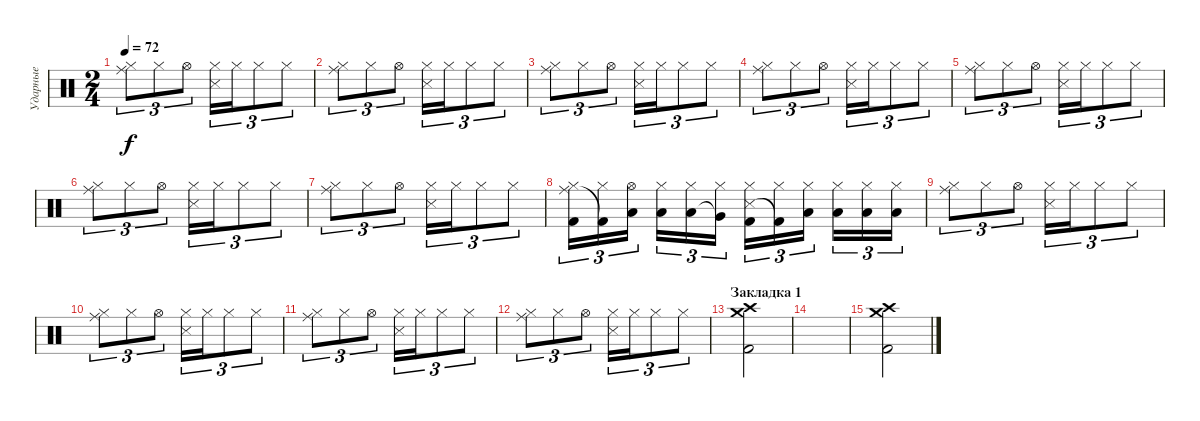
\track ("Ударные" "Ударные") {instrument percussion}
\staff {score}
\articulation defaults
\ts (2 4)
\tempo 72
\clef neutral
\ks c
("Hi-Hat (closed)" "Ride (middle)").8{tu (3 2) dy f} "Hi-Hat (closed)".8{tu (3 2)} "Hi-Hat (open)".8{tu (3 2)} ("Hi-Hat (closed)" "Snare (side stick) 3").16{tu (3 2)} "Hi-Hat (closed)".16{tu (3 2)} "Hi-Hat (closed)".8{tu (3 2)} "Hi-Hat (closed)".8{tu (3 2)} |
("Hi-Hat (closed)" "Ride (middle)").8{tu (3 2)} "Hi-Hat (closed)".8{tu (3 2)} "Hi-Hat (open)".8{tu (3 2)} ("Hi-Hat (closed)" "Snare (side stick) 3").16{tu (3 2)} "Hi-Hat (closed)".16{tu (3 2)} "Hi-Hat (closed)".8{tu (3 2)} "Hi-Hat (closed)".8{tu (3 2)} |
("Hi-Hat (closed)" "Ride (middle)").8{tu (3 2)} "Hi-Hat (closed)".8{tu (3 2)} "Hi-Hat (open)".8{tu (3 2)} ("Hi-Hat (closed)" "Snare (side stick) 3").16{tu (3 2)} "Hi-Hat (closed)".16{tu (3 2)} "Hi-Hat (closed)".8{tu (3 2)} "Hi-Hat (closed)".8{tu (3 2)} |
("Hi-Hat (closed)" "Ride (middle)").8{tu (3 2)} "Hi-Hat (closed)".8{tu (3 2)} "Hi-Hat (open)".8{tu (3 2)} ("Hi-Hat (closed)" "Snare (side stick) 3").16{tu (3 2)} "Hi-Hat (closed)".16{tu (3 2)} "Hi-Hat (closed)".8{tu (3 2)} "Hi-Hat (closed)".8{tu (3 2)} |
("Hi-Hat (closed)" "Ride (middle)").8{tu (3 2)} "Hi-Hat (closed)".8{tu (3 2)} "Hi-Hat (open)".8{tu (3 2)} ("Hi-Hat (closed)" "Snare (side stick) 3").16{tu (3 2)} "Hi-Hat (closed)".16{tu (3 2)} "Hi-Hat (closed)".8{tu (3 2)} "Hi-Hat (closed)".8{tu (3 2)} |
("Hi-Hat (closed)" "Ride (middle)").8{tu (3 2)} "Hi-Hat (closed)".8{tu (3 2)} "Hi-Hat (open)".8{tu (3 2)} ("Hi-Hat (closed)" "Snare (side stick) 3").16{tu (3 2)} "Hi-Hat (closed)".16{tu (3 2)} "Hi-Hat (closed)".8{tu (3 2)} "Hi-Hat (closed)".8{tu (3 2)} |
("Hi-Hat (closed)" "Ride (middle)").8{tu (3 2)} "Hi-Hat (closed)".8{tu (3 2)} "Hi-Hat (open)".8{tu (3 2)} ("Hi-Hat (closed)" "Snare (side stick) 3").16{tu (3 2)} "Hi-Hat (closed)".16{tu (3 2)} "Hi-Hat (closed)".8{tu (3 2)} "Hi-Hat (closed)".8{tu (3 2)} |
("Hi-Hat (closed)" "Ride (middle)" "Kick (hit) 2").16{tu (3 2)} ("Hi-Hat (closed)" "Kick (hit) 2"{t}).16{tu (3 2)} ("Hi-Hat (open)" "Low Tom (hit)").16{tu (3 2)} ("Hi-Hat (closed)" "Low Tom (hit)").16{tu (3 2)} ("Hi-Hat (closed)" "Low Tom (hit)").16{tu (3 2)} ("Hi-Hat (closed)" "Very Low Tom (hit)"{t}).16{tu (3 2)} ("Hi-Hat (closed)" "Snare (side stick) 3" "Kick (hit) 2").16{tu (3 2)} ("Hi-Hat (closed)" "Kick (hit) 2"{t}).16{tu (3 2)} ("Hi-Hat (closed)" "Low Floor Tom (hit)").16{tu (3 2)} ("Hi-Hat (closed)" "Low Floor Tom (hit)").16{tu (3 2)} ("Hi-Hat (closed)" "Low Floor Tom (hit)").16{tu (3 2)} ("Hi-Hat (closed)" "Low Floor Tom (hit)").16{tu (3 2)} |
("Hi-Hat (closed)" "Ride (middle)").8{tu (3 2)} "Hi-Hat (closed)".8{tu (3 2)} "Hi-Hat (open)".8{tu (3 2)} ("Hi-Hat (closed)" "Snare (side stick) 3").16{tu (3 2)} "Hi-Hat (closed)".16{tu (3 2)} "Hi-Hat (closed)".8{tu (3 2)} "Hi-Hat (closed)".8{tu (3 2)} |
("Hi-Hat (closed)" "Ride (middle)").8{tu (3 2)} "Hi-Hat (closed)".8{tu (3 2)} "Hi-Hat (open)".8{tu (3 2)} ("Hi-Hat (closed)" "Snare (side stick) 3").16{tu (3 2)} "Hi-Hat (closed)".16{tu (3 2)} "Hi-Hat (closed)".8{tu (3 2)} "Hi-Hat (closed)".8{tu (3 2)} |
("Hi-Hat (closed)" "Ride (middle)").8{tu (3 2)} "Hi-Hat (closed)".8{tu (3 2)} "Hi-Hat (open)".8{tu (3 2)} ("Hi-Hat (closed)" "Snare (side stick) 3").16{tu (3 2)} "Hi-Hat (closed)".16{tu (3 2)} "Hi-Hat (closed)".8{tu (3 2)} "Hi-Hat (closed)".8{tu (3 2)} |
("Hi-Hat (closed)" "Ride (middle)").8{tu (3 2)} "Hi-Hat (closed)".8{tu (3 2)} "Hi-Hat (open)".8{tu (3 2)} ("Hi-Hat (closed)" "Snare (side stick) 3").16{tu (3 2)} "Hi-Hat (closed)".16{tu (3 2)} "Hi-Hat (closed)".8{tu (3 2)} "Hi-Hat (closed)".8{tu (3 2)} |
\section ("" "Закладка 1")
("Crash high (hit)" "Crash medium (hit)" "Kick (hit) 2").2 |
|
("Crash high (hit)" "Crash medium (hit)" "Kick (hit) 2").2
